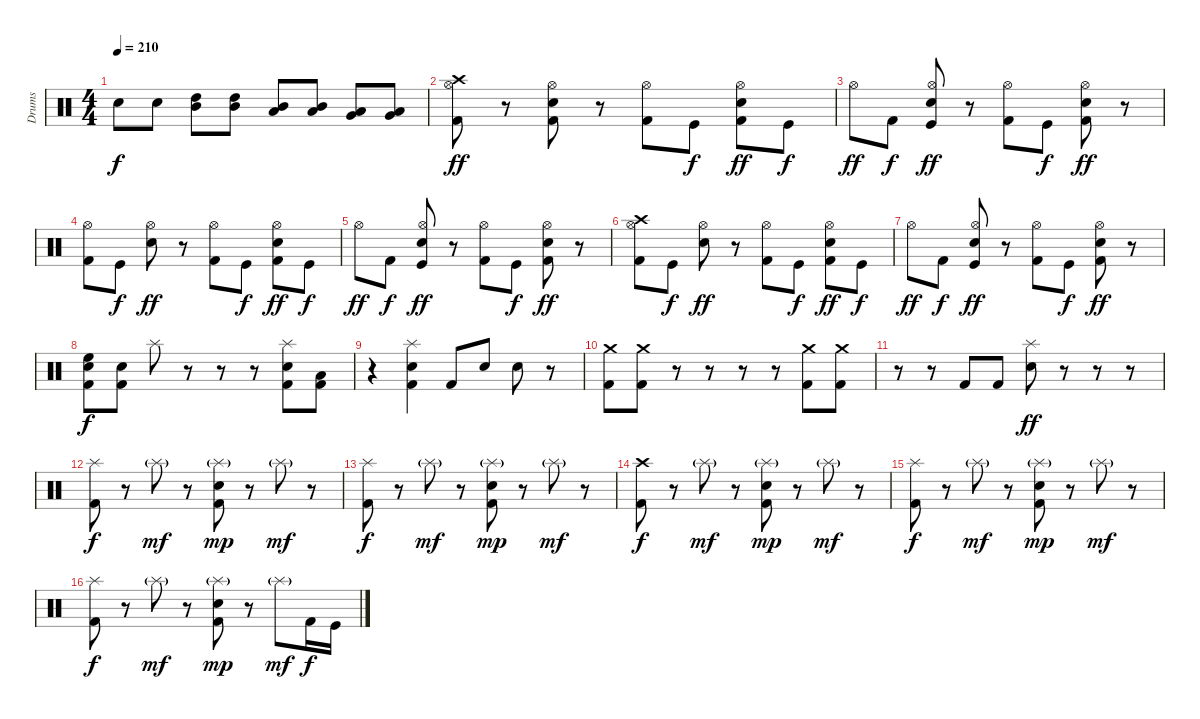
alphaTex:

\track ("Drums" "Drums") {instrument percussion}
\staff {score}
\articulation defaults
\ts (4 4)
\tempo 210
\clef neutral
\ks c "Electric Snare (hit)".8{dy f} "Electric Snare (hit)".8
("Mid Tom (hit)" "High Tom (hit)").8 ("Mid Tom (hit)" "High Tom (hit)").8 ("Low Tom (hit)" "Mid Tom (hit)").8 ("Low Tom (hit)" "Mid Tom (hit)").8 ("Very Low Tom (hit)" "Low Tom (hit)").8 ("Very Low Tom (hit)" "Low Tom (hit)").8 |
("Kick (hit) 2" "Crash high (hit)" "Hi-Hat (open)").8{dy ff} r.8 ("Kick (hit) 2" "Electric Snare (hit)" "Hi-Hat (open)").8 r.8 ("Kick (hit) 2" "Hi-Hat (open)").8 "Kick (hit)".8{dy f} ("Kick (hit) 2" "Electric Snare (hit)" "Hi-Hat (open)").8{dy ff} "Kick (hit)".8{dy f} |
"Hi-Hat (open)".8{dy ff} "Kick (hit) 2".8{dy f} ("Kick (hit)" "Electric Snare (hit)" "Hi-Hat (open)").8{dy ff} r.8 ("Kick (hit) 2" "Hi-Hat (open)").8 "Kick (hit)".8{dy f} ("Kick (hit) 2" "Electric Snare (hit)" "Hi-Hat (open)").8{dy ff} r.8 |
("Kick (hit) 2" "Hi-Hat (open)").8 "Kick (hit)".8{dy f} ("Electric Snare (hit)" "Hi-Hat (open)").8{dy ff} r.8 ("Kick (hit) 2" "Hi-Hat (open)").8 "Kick (hit)".8{dy f} ("Kick (hit) 2" "Electric Snare (hit)" "Hi-Hat (open)").8{dy ff} "Kick (hit)".8{dy f} |
"Hi-Hat (open)".8{dy ff} "Kick (hit) 2".8{dy f} ("Kick (hit)" "Electric Snare (hit)" "Hi-Hat (open)").8{dy ff} r.8 ("Kick (hit) 2" "Hi-Hat (open)").8 "Kick (hit)".8{dy f} ("Kick (hit) 2" "Electric Snare (hit)" "Hi-Hat (open)").8{dy ff} r.8 |
("Kick (hit) 2" "Crash high (hit)" "Hi-Hat (open)").8 "Kick (hit)".8{dy f} ("Electric Snare (hit)" "Hi-Hat (open)").8{dy ff} r.8 ("Kick (hit) 2" "Hi-Hat (open)").8 "Kick (hit)".8{dy f} ("Kick (hit) 2" "Electric Snare (hit)" "Hi-Hat (open)").8{dy ff} "Kick (hit)".8{dy f} |
"Hi-Hat (open)".8{dy ff} "Kick (hit) 2".8{dy f} ("Kick (hit)" "Electric Snare (hit)" "Hi-Hat (open)").8{dy ff} r.8 ("Kick (hit) 2" "Hi-Hat (open)").8 "Kick (hit)".8{dy f} ("Kick (hit) 2" "Electric Snare (hit)" "Hi-Hat (open)").8{dy ff} r.8 |
("Kick (hit) 2" "Electric Snare (hit)" "High Floor Tom (hit)").8{dy f} ("Kick (hit) 2" "Electric Snare (hit)").8 "Splash (hit)".8 r.8 r.8 r.8 ("Kick (hit) 2" "Electric Snare (hit)" "Splash (hit)").8 ("Kick (hit) 2" "Low Tom (hit)").8 |
r.4 ("Kick (hit) 2" "Electric Snare (hit)" "Splash (hit)").4 "Kick (hit) 2".8 "Electric Snare (hit)".8 "Electric Snare (hit)".8 r.8 |
("Kick (hit) 2" "Crash medium (hit)").8 ("Kick (hit) 2" "Crash medium (hit)").8 r.8 r.8 r.8 r.8 ("Kick (hit) 2" "Crash medium (hit)").8 ("Kick (hit) 2" "Crash medium (hit)").8 |
r.8 r.8 "Kick (hit) 2".8 "Kick (hit) 2".8 ("Electric Snare (hit)" "Splash (hit)").8{dy ff} r.8 r.8 r.8 |
("Kick (hit) 2" "Splash (hit)").8{dy f} r.8 "Splash (hit)"{g}.8{dy mf} r.8 ("Kick (hit) 2" "Electric Snare (hit)" "Splash (hit)"{g}).8{dy mp} r.8 "Splash (hit)"{g}.8{dy mf} r.8 |
("Kick (hit) 2" "Splash (hit)").8{dy f} r.8 "Splash (hit)"{g}.8{dy mf} r.8 ("Kick (hit) 2" "Electric Snare (hit)" "Splash (hit)"{g}).8{dy mp} r.8 "Splash (hit)"{g}.8{dy mf} r.8 |
("Kick (hit) 2" "Crash high (hit)").8{dy f} r.8 "Splash (hit)"{g}.8{dy mf} r.8 ("Kick (hit) 2" "Electric Snare (hit)" "Splash (hit)"{g}).8{dy mp} r.8 "Splash (hit)"{g}.8{dy mf} r.8 |
("Kick (hit) 2" "Splash (hit)").8{dy f} r.8 "Splash (hit)"{g}.8{dy mf} r.8 ("Kick (hit) 2" "Electric Snare (hit)" "Splash (hit)"{g}).8{dy mp} r.8 "Splash (hit)"{g}.8{dy mf} r.8 |
("Kick (hit) 2" "Splash (hit)").8{dy f} r.8 "Splash (hit)"{g}.8{dy mf} r.8 ("Kick (hit) 2" "Electric Snare (hit)" "Splash (hit)"{g}).8{dy mp} r.8 "Splash (hit)"{g}.8{dy mf} "Kick (hit) 2".16{dy f} "Kick (hit)".16
